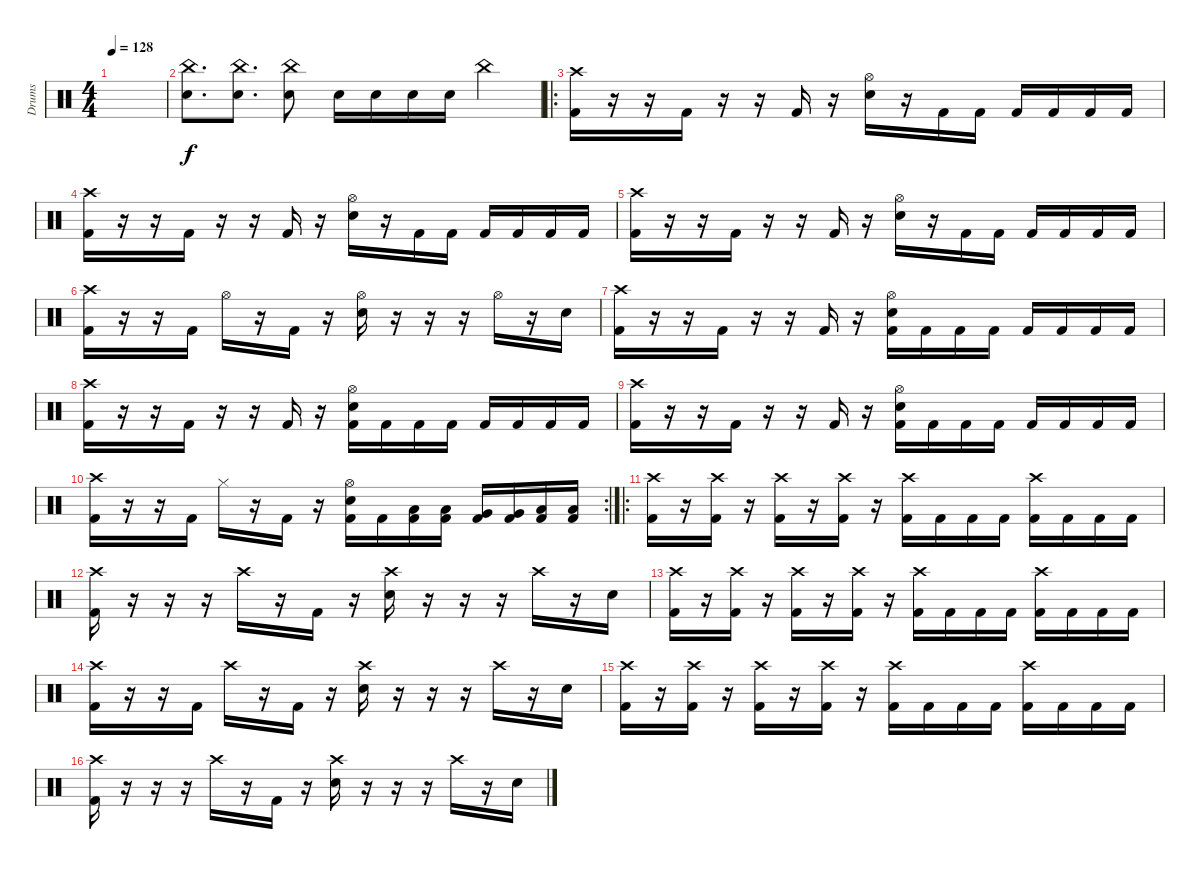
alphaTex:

\track ("Drums" "Drums") {instrument percussion}
\staff {score}
\articulation defaults
\ts (4 4)
\tempo 128
\clef neutral
\ks c
|
("China (hit)" "Electric Snare (hit)").8{d} ("China (hit)" "Electric Snare (hit)").8{d} ("China (hit)" "Electric Snare (hit)").8 "Electric Snare (hit)".16 "Electric Snare (hit)".16 "Electric Snare (hit)".16 "Electric Snare (hit)".16 "China (hit)".4 |
\ro
("Crash high (hit)" "Kick (hit) 2").16 r.16 r.16 "Kick (hit) 2".16 r.16 r.16 "Kick (hit) 2".16 r.16 ("Hi-Hat (open)" "Electric Snare (hit)").16 r.16 "Kick (hit) 2".16 "Kick (hit) 2".16 "Kick (hit) 2".16 "Kick (hit) 2".16 "Kick (hit) 2".16 "Kick (hit) 2".16 |
("Crash high (hit)" "Kick (hit) 2").16 r.16 r.16 "Kick (hit) 2".16 r.16 r.16 "Kick (hit) 2".16 r.16 ("Hi-Hat (open)" "Electric Snare (hit)").16 r.16 "Kick (hit) 2".16 "Kick (hit) 2".16 "Kick (hit) 2".16 "Kick (hit) 2".16 "Kick (hit) 2".16 "Kick (hit) 2".16 |
("Crash high (hit)" "Kick (hit) 2").16 r.16 r.16 "Kick (hit) 2".16 r.16 r.16 "Kick (hit) 2".16 r.16 ("Hi-Hat (open)" "Electric Snare (hit)").16 r.16 "Kick (hit) 2".16 "Kick (hit) 2".16 "Kick (hit) 2".16 "Kick (hit) 2".16 "Kick (hit) 2".16 "Kick (hit) 2".16 |
("Crash high (hit)" "Kick (hit) 2").16 r.16 r.16 "Kick (hit) 2".16 "Hi-Hat (open)".16 r.16 "Kick (hit) 2".16 r.16 ("Hi-Hat (open)" "Electric Snare (hit)").16 r.16 r.16 r.16 "Hi-Hat (open)".16 r.16 "Electric Snare (hit)".16 |
("Crash high (hit)" "Kick (hit) 2").16 r.16 r.16 "Kick (hit) 2".16 r.16 r.16 "Kick (hit) 2".16 r.16 ("Hi-Hat (open)" "Electric Snare (hit)" "Kick (hit) 2").16 "Kick (hit) 2".16 "Kick (hit) 2".16 "Kick (hit) 2".16 "Kick (hit) 2".16 "Kick (hit) 2".16 "Kick (hit) 2".16 "Kick (hit) 2".16 |
("Crash high (hit)" "Kick (hit) 2").16 r.16 r.16 "Kick (hit) 2".16 r.16 r.16 "Kick (hit) 2".16 r.16 ("Hi-Hat (open)" "Electric Snare (hit)" "Kick (hit) 2").16 "Kick (hit) 2".16 "Kick (hit) 2".16 "Kick (hit) 2".16 "Kick (hit) 2".16 "Kick (hit) 2".16 "Kick (hit) 2".16 "Kick (hit) 2".16 |
("Crash high (hit)" "Kick (hit) 2").16 r.16 r.16 "Kick (hit) 2".16 r.16 r.16 "Kick (hit) 2".16 r.16 ("Hi-Hat (open)" "Electric Snare (hit)" "Kick (hit) 2").16 "Kick (hit) 2".16 "Kick (hit) 2".16 "Kick (hit) 2".16 "Kick (hit) 2".16 "Kick (hit) 2".16 "Kick (hit) 2".16 "Kick (hit) 2".16 |
\rc 2
("Crash high (hit)" "Kick (hit) 2").16 r.16 r.16 "Kick (hit) 2".16 "Hi-Hat (closed)".16 r.16 "Kick (hit) 2".16 r.16 ("Hi-Hat (open)" "Electric Snare (hit)" "Kick (hit) 2").16 "Kick (hit) 2".16 ("Low Tom (hit)" "Kick (hit) 2").16 ("Low Tom (hit)" "Kick (hit) 2").16 ("Very Low Tom (hit)" "Kick (hit) 2").16 ("Very Low Tom (hit)" "Kick (hit) 2").16 ("Low Floor Tom (hit)" "Kick (hit) 2").16 ("Low Floor Tom (hit)" "Kick (hit) 2").16 |
\ro
("Crash high (hit)" "Kick (hit) 2").16 r.16 ("Crash high (hit)" "Kick (hit) 2").16 r.16 ("Crash high (hit)" "Kick (hit) 2").16 r.16 ("Crash high (hit)" "Kick (hit) 2").16 r.16 ("Crash high (hit)" "Kick (hit) 2").16 "Kick (hit) 2".16 "Kick (hit) 2".16 "Kick (hit) 2".16 ("Crash high (hit)" "Kick (hit) 2").16 "Kick (hit) 2".16 "Kick (hit) 2".16 "Kick (hit) 2".16 |
("Crash high (hit)" "Kick (hit) 2").16 r.16 r.16 r.16 "Crash high (hit)".16 r.16 "Kick (hit) 2".16 r.16 ("Crash high (hit)" "Electric Snare (hit)").16 r.16 r.16 r.16 "Crash high (hit)".16 r.16 "Electric Snare (hit)".16 |
("Crash high (hit)" "Kick (hit) 2").16 r.16 ("Crash high (hit)" "Kick (hit) 2").16 r.16 ("Crash high (hit)" "Kick (hit) 2").16 r.16 ("Crash high (hit)" "Kick (hit) 2").16 r.16 ("Crash high (hit)" "Kick (hit) 2").16 "Kick (hit) 2".16 "Kick (hit) 2".16 "Kick (hit) 2".16 ("Crash high (hit)" "Kick (hit) 2").16 "Kick (hit) 2".16 "Kick (hit) 2".16 "Kick (hit) 2".16 |
("Crash high (hit)" "Kick (hit) 2").16 r.16 r.16 "Kick (hit) 2".16 "Crash high (hit)".16 r.16 "Kick (hit) 2".16 r.16 ("Crash high (hit)" "Electric Snare (hit)").16 r.16 r.16 r.16 "Crash high (hit)".16 r.16 "Electric Snare (hit)".16 |
("Crash high (hit)" "Kick (hit) 2").16 r.16 ("Crash high (hit)" "Kick (hit) 2").16 r.16 ("Crash high (hit)" "Kick (hit) 2").16 r.16 ("Crash high (hit)" "Kick (hit) 2").16 r.16 ("Crash high (hit)" "Kick (hit) 2").16 "Kick (hit) 2".16 "Kick (hit) 2".16 "Kick (hit) 2".16 ("Crash high (hit)" "Kick (hit) 2").16 "Kick (hit) 2".16 "Kick (hit) 2".16 "Kick (hit) 2".16 |
("Crash high (hit)" "Kick (hit) 2").16 r.16 r.16 r.16 "Crash high (hit)".16 r.16 "Kick (hit) 2".16 r.16 ("Crash high (hit)" "Electric Snare (hit)").16 r.16 r.16 r.16 "Crash high (hit)".16 r.16 "Electric Snare (hit)".16
